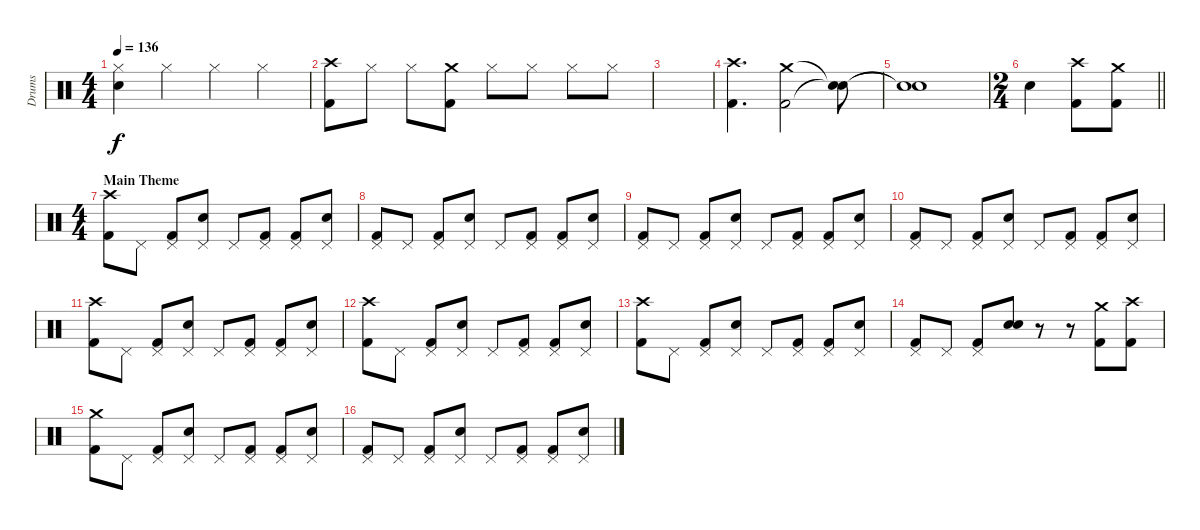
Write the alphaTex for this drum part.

\track ("Drums" "Drums") {instrument percussion}
\staff {score}
\articulation defaults
\ts (4 4)
\tempo 136
\clef neutral
\ks c
("Snare (hit)"{t} "Hi-Hat (closed)").4{dy f} "Hi-Hat (closed)".4 "Hi-Hat (closed)".4 "Hi-Hat (closed)".4 |
("Crash high (hit)" "Kick (hit) 2").8 "Hi-Hat (closed)".8 "Hi-Hat (closed)".8 ("Crash medium (hit)" "Kick (hit) 2").8 "Hi-Hat (closed)".8 "Hi-Hat (closed)".8 "Hi-Hat (closed)".8 "Hi-Hat (closed)".8 |
|
("Crash high (hit)" "Kick (hit) 2").4{d} ("Crash medium (hit)" "Kick (hit) 2").2 ("Snare (hit)"{t} "Snare (hit)"{t}).8 |
("Snare (hit)"{t} "Snare (hit)"{t}).1 |
\ts (2 4)
\barLineRight lightlight "Electric Snare (hit)".4
("Crash high (hit)" "Kick (hit) 2").8 ("Crash medium (hit)" "Kick (hit) 2").8 |
\ts (4 4)
\section ("" "Main Theme")
("Crash high (hit)" "Kick (hit) 2").8 "Pedal Hi-Hat (hit)".8 ("Pedal Hi-Hat (hit)" "Kick (hit) 2").8 ("Pedal Hi-Hat (hit)" "Electric Snare (hit)").8 "Pedal Hi-Hat (hit)".8 ("Pedal Hi-Hat (hit)" "Kick (hit) 2").8 ("Pedal Hi-Hat (hit)" "Kick (hit) 2").8 ("Pedal Hi-Hat (hit)" "Electric Snare (hit)").8 |
("Pedal Hi-Hat (hit)" "Kick (hit) 2").8 "Pedal Hi-Hat (hit)".8 ("Pedal Hi-Hat (hit)" "Kick (hit) 2").8 ("Pedal Hi-Hat (hit)" "Electric Snare (hit)").8 "Pedal Hi-Hat (hit)".8 ("Pedal Hi-Hat (hit)" "Kick (hit) 2").8 ("Pedal Hi-Hat (hit)" "Kick (hit) 2").8 ("Pedal Hi-Hat (hit)" "Electric Snare (hit)").8 |
("Pedal Hi-Hat (hit)" "Kick (hit) 2").8 "Pedal Hi-Hat (hit)".8 ("Pedal Hi-Hat (hit)" "Kick (hit) 2").8 ("Pedal Hi-Hat (hit)" "Electric Snare (hit)").8 "Pedal Hi-Hat (hit)".8 ("Pedal Hi-Hat (hit)" "Kick (hit) 2").8 ("Pedal Hi-Hat (hit)" "Kick (hit) 2").8 ("Pedal Hi-Hat (hit)" "Electric Snare (hit)").8 |
("Pedal Hi-Hat (hit)" "Kick (hit) 2").8 "Pedal Hi-Hat (hit)".8 ("Pedal Hi-Hat (hit)" "Kick (hit) 2").8 ("Pedal Hi-Hat (hit)" "Electric Snare (hit)").8 "Pedal Hi-Hat (hit)".8 ("Pedal Hi-Hat (hit)" "Kick (hit) 2").8 ("Pedal Hi-Hat (hit)" "Kick (hit) 2").8 ("Pedal Hi-Hat (hit)" "Electric Snare (hit)").8 |
("Crash high (hit)" "Kick (hit) 2").8 "Pedal Hi-Hat (hit)".8 ("Pedal Hi-Hat (hit)" "Kick (hit) 2").8 ("Pedal Hi-Hat (hit)" "Electric Snare (hit)").8 "Pedal Hi-Hat (hit)".8 ("Pedal Hi-Hat (hit)" "Kick (hit) 2").8 ("Pedal Hi-Hat (hit)" "Kick (hit) 2").8 ("Pedal Hi-Hat (hit)" "Electric Snare (hit)").8 |
("Crash high (hit)" "Kick (hit) 2").8 "Pedal Hi-Hat (hit)".8 ("Pedal Hi-Hat (hit)" "Kick (hit) 2").8 ("Pedal Hi-Hat (hit)" "Electric Snare (hit)").8 "Pedal Hi-Hat (hit)".8 ("Pedal Hi-Hat (hit)" "Kick (hit) 2").8 ("Pedal Hi-Hat (hit)" "Kick (hit) 2").8 ("Pedal Hi-Hat (hit)" "Electric Snare (hit)").8 |
("Crash high (hit)" "Kick (hit) 2").8 "Pedal Hi-Hat (hit)".8 ("Pedal Hi-Hat (hit)" "Kick (hit) 2").8 ("Pedal Hi-Hat (hit)" "Electric Snare (hit)").8 "Pedal Hi-Hat (hit)".8 ("Pedal Hi-Hat (hit)" "Kick (hit) 2").8 ("Pedal Hi-Hat (hit)" "Kick (hit) 2").8 ("Pedal Hi-Hat (hit)" "Electric Snare (hit)").8 |
("Pedal Hi-Hat (hit)" "Kick (hit) 2").8 "Pedal Hi-Hat (hit)".8 ("Pedal Hi-Hat (hit)" "Kick (hit) 2").8 ("Electric Snare (hit)" "Electric Snare (hit)").8 r.8 r.8 ("Crash medium (hit)" "Kick (hit) 2").8 ("Crash high (hit)" "Kick (hit) 2").8 |
("Crash medium (hit)" "Kick (hit) 2").8 "Pedal Hi-Hat (hit)".8 ("Pedal Hi-Hat (hit)" "Kick (hit) 2").8 ("Pedal Hi-Hat (hit)" "Electric Snare (hit)").8 "Pedal Hi-Hat (hit)".8 ("Pedal Hi-Hat (hit)" "Kick (hit) 2").8 ("Pedal Hi-Hat (hit)" "Kick (hit) 2").8 ("Pedal Hi-Hat (hit)" "Electric Snare (hit)").8 |
("Pedal Hi-Hat (hit)" "Kick (hit) 2").8 "Pedal Hi-Hat (hit)".8 ("Pedal Hi-Hat (hit)" "Kick (hit) 2").8 ("Pedal Hi-Hat (hit)" "Electric Snare (hit)").8 "Pedal Hi-Hat (hit)".8 ("Pedal Hi-Hat (hit)" "Kick (hit) 2").8 ("Pedal Hi-Hat (hit)" "Kick (hit) 2").8 ("Pedal Hi-Hat (hit)" "Electric Snare (hit)").8
